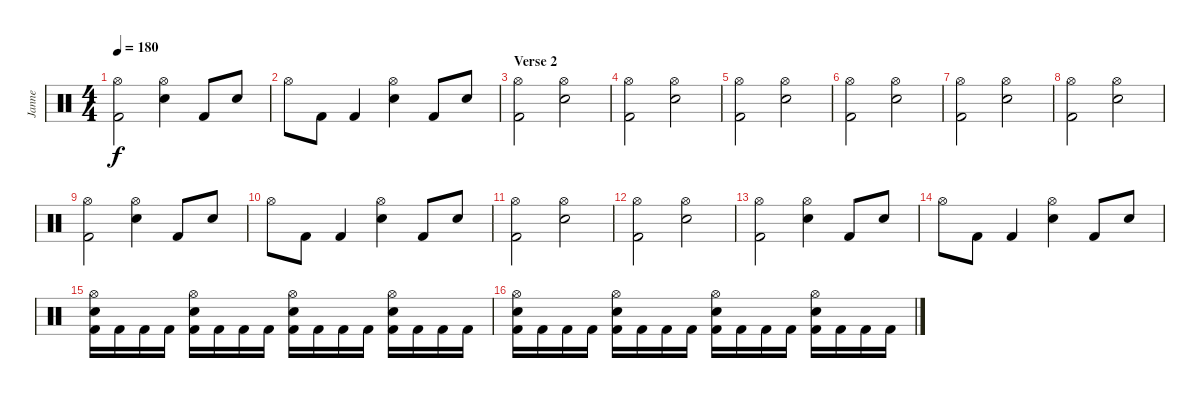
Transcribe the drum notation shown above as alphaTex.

\track ("Janne" "Janne") {instrument percussion}
\staff {score}
\articulation defaults
\ts (4 4)
\tempo 180
\clef neutral
\ks c
("Hi-Hat (open)" "Kick (hit) 2").2{dy f} ("Hi-Hat (open)" "Electric Snare (hit)").4 "Kick (hit) 2".8 "Electric Snare (hit)".8 |
"Hi-Hat (open)".8 "Kick (hit) 2".8 "Kick (hit) 2".4 ("Hi-Hat (open)" "Electric Snare (hit)").4 "Kick (hit) 2".8 "Electric Snare (hit)".8 |
\section ("" "Verse 2")
("Hi-Hat (open)" "Kick (hit) 2").2 ("Hi-Hat (open)" "Electric Snare (hit)").2 |
("Hi-Hat (open)" "Kick (hit) 2").2 ("Hi-Hat (open)" "Electric Snare (hit)").2 |
("Hi-Hat (open)" "Kick (hit) 2").2 ("Hi-Hat (open)" "Electric Snare (hit)").2 |
("Hi-Hat (open)" "Kick (hit) 2").2 ("Hi-Hat (open)" "Electric Snare (hit)").2 |
("Hi-Hat (open)" "Kick (hit) 2").2 ("Hi-Hat (open)" "Electric Snare (hit)").2 |
("Hi-Hat (open)" "Kick (hit) 2").2 ("Hi-Hat (open)" "Electric Snare (hit)").2 |
("Hi-Hat (open)" "Kick (hit) 2").2 ("Hi-Hat (open)" "Electric Snare (hit)").4 "Kick (hit) 2".8 "Electric Snare (hit)".8 |
"Hi-Hat (open)".8 "Kick (hit) 2".8 "Kick (hit) 2".4 ("Hi-Hat (open)" "Electric Snare (hit)").4 "Kick (hit) 2".8 "Electric Snare (hit)".8 |
("Hi-Hat (open)" "Kick (hit) 2").2 ("Hi-Hat (open)" "Electric Snare (hit)").2 |
("Hi-Hat (open)" "Kick (hit) 2").2 ("Hi-Hat (open)" "Electric Snare (hit)").2 |
("Hi-Hat (open)" "Kick (hit) 2").2 ("Hi-Hat (open)" "Electric Snare (hit)").4 "Kick (hit) 2".8 "Electric Snare (hit)".8 |
"Hi-Hat (open)".8 "Kick (hit) 2".8 "Kick (hit) 2".4 ("Hi-Hat (open)" "Electric Snare (hit)").4 "Kick (hit) 2".8 "Electric Snare (hit)".8 |
("Hi-Hat (open)" "Electric Snare (hit)" "Kick (hit) 2").16 "Kick (hit) 2".16 "Kick (hit) 2".16 "Kick (hit) 2".16 ("Hi-Hat (open)" "Electric Snare (hit)" "Kick (hit) 2").16 "Kick (hit) 2".16 "Kick (hit) 2".16 "Kick (hit) 2".16 ("Hi-Hat (open)" "Electric Snare (hit)" "Kick (hit) 2").16 "Kick (hit) 2".16 "Kick (hit) 2".16 "Kick (hit) 2".16 ("Hi-Hat (open)" "Electric Snare (hit)" "Kick (hit) 2").16 "Kick (hit) 2".16 "Kick (hit) 2".16 "Kick (hit) 2".16 |
("Hi-Hat (open)" "Electric Snare (hit)" "Kick (hit) 2").16 "Kick (hit) 2".16 "Kick (hit) 2".16 "Kick (hit) 2".16 ("Hi-Hat (open)" "Electric Snare (hit)" "Kick (hit) 2").16 "Kick (hit) 2".16 "Kick (hit) 2".16 "Kick (hit) 2".16 ("Hi-Hat (open)" "Electric Snare (hit)" "Kick (hit) 2").16 "Kick (hit) 2".16 "Kick (hit) 2".16 "Kick (hit) 2".16 ("Hi-Hat (open)" "Electric Snare (hit)" "Kick (hit) 2").16 "Kick (hit) 2".16 "Kick (hit) 2".16 "Kick (hit) 2".16
